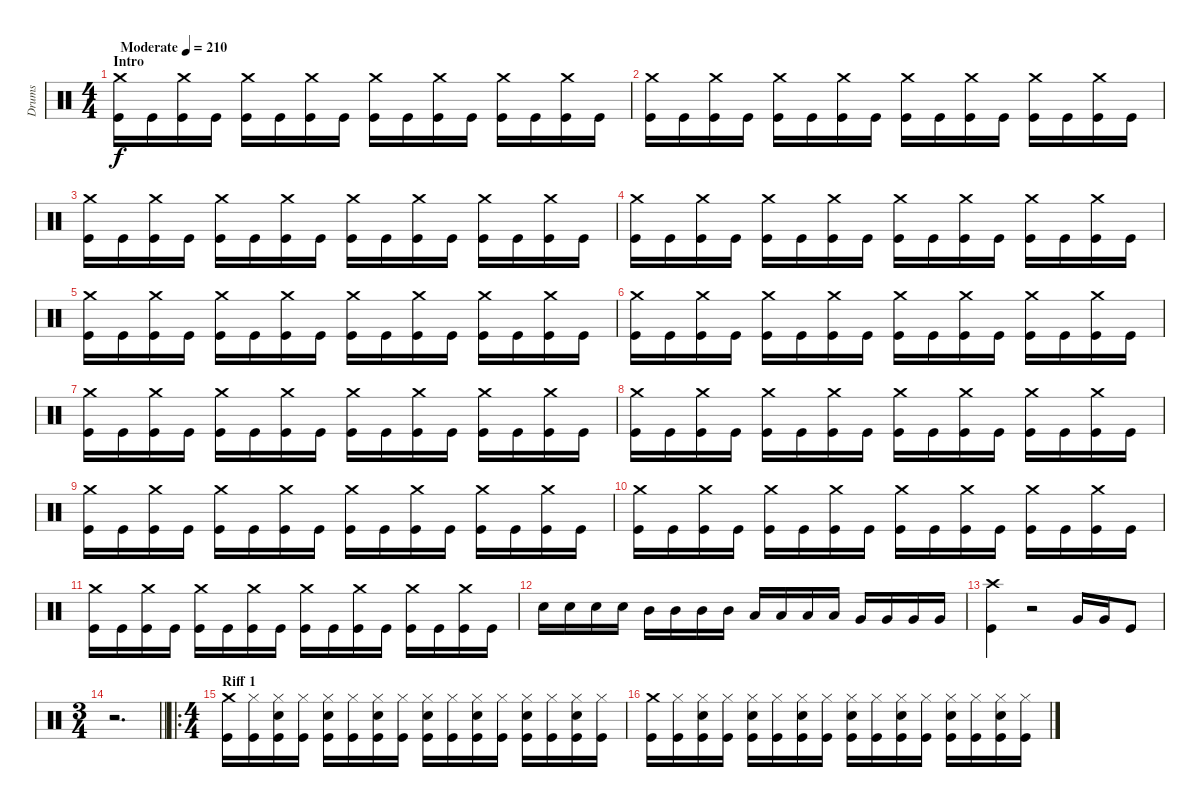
\track ("Drums" "Drums") {instrument percussion}
\staff {score}
\articulation defaults
\ts (4 4)
\section ("" "Intro")
\tempo (210 "Moderate")
\clef neutral
\ks c
("Crash medium (hit)" "Kick (hit)").16{dy f} "Kick (hit)".16 ("Crash medium (hit)" "Kick (hit)").16 "Kick (hit)".16 ("Crash medium (hit)" "Kick (hit)").16 "Kick (hit)".16 ("Crash medium (hit)" "Kick (hit)").16 "Kick (hit)".16 ("Crash medium (hit)" "Kick (hit)").16 "Kick (hit)".16 ("Crash medium (hit)" "Kick (hit)").16 "Kick (hit)".16 ("Crash medium (hit)" "Kick (hit)").16 "Kick (hit)".16 ("Crash medium (hit)" "Kick (hit)").16 "Kick (hit)".16 |
("Crash medium (hit)" "Kick (hit)").16 "Kick (hit)".16 ("Crash medium (hit)" "Kick (hit)").16 "Kick (hit)".16 ("Crash medium (hit)" "Kick (hit)").16 "Kick (hit)".16 ("Crash medium (hit)" "Kick (hit)").16 "Kick (hit)".16 ("Crash medium (hit)" "Kick (hit)").16 "Kick (hit)".16 ("Crash medium (hit)" "Kick (hit)").16 "Kick (hit)".16 ("Crash medium (hit)" "Kick (hit)").16 "Kick (hit)".16 ("Crash medium (hit)" "Kick (hit)").16 "Kick (hit)".16 |
("Crash medium (hit)" "Kick (hit)").16 "Kick (hit)".16 ("Crash medium (hit)" "Kick (hit)").16 "Kick (hit)".16 ("Crash medium (hit)" "Kick (hit)").16 "Kick (hit)".16 ("Crash medium (hit)" "Kick (hit)").16 "Kick (hit)".16 ("Crash medium (hit)" "Kick (hit)").16 "Kick (hit)".16 ("Crash medium (hit)" "Kick (hit)").16 "Kick (hit)".16 ("Crash medium (hit)" "Kick (hit)").16 "Kick (hit)".16 ("Crash medium (hit)" "Kick (hit)").16 "Kick (hit)".16 |
("Crash medium (hit)" "Kick (hit)").16 "Kick (hit)".16 ("Crash medium (hit)" "Kick (hit)").16 "Kick (hit)".16 ("Crash medium (hit)" "Kick (hit)").16 "Kick (hit)".16 ("Crash medium (hit)" "Kick (hit)").16 "Kick (hit)".16 ("Crash medium (hit)" "Kick (hit)").16 "Kick (hit)".16 ("Crash medium (hit)" "Kick (hit)").16 "Kick (hit)".16 ("Crash medium (hit)" "Kick (hit)").16 "Kick (hit)".16 ("Crash medium (hit)" "Kick (hit)").16 "Kick (hit)".16 |
("Crash medium (hit)" "Kick (hit)").16 "Kick (hit)".16 ("Crash medium (hit)" "Kick (hit)").16 "Kick (hit)".16 ("Crash medium (hit)" "Kick (hit)").16 "Kick (hit)".16 ("Crash medium (hit)" "Kick (hit)").16 "Kick (hit)".16 ("Crash medium (hit)" "Kick (hit)").16 "Kick (hit)".16 ("Crash medium (hit)" "Kick (hit)").16 "Kick (hit)".16 ("Crash medium (hit)" "Kick (hit)").16 "Kick (hit)".16 ("Crash medium (hit)" "Kick (hit)").16 "Kick (hit)".16 |
("Crash medium (hit)" "Kick (hit)").16 "Kick (hit)".16 ("Crash medium (hit)" "Kick (hit)").16 "Kick (hit)".16 ("Crash medium (hit)" "Kick (hit)").16 "Kick (hit)".16 ("Crash medium (hit)" "Kick (hit)").16 "Kick (hit)".16 ("Crash medium (hit)" "Kick (hit)").16 "Kick (hit)".16 ("Crash medium (hit)" "Kick (hit)").16 "Kick (hit)".16 ("Crash medium (hit)" "Kick (hit)").16 "Kick (hit)".16 ("Crash medium (hit)" "Kick (hit)").16 "Kick (hit)".16 |
("Crash medium (hit)" "Kick (hit)").16 "Kick (hit)".16 ("Crash medium (hit)" "Kick (hit)").16 "Kick (hit)".16 ("Crash medium (hit)" "Kick (hit)").16 "Kick (hit)".16 ("Crash medium (hit)" "Kick (hit)").16 "Kick (hit)".16 ("Crash medium (hit)" "Kick (hit)").16 "Kick (hit)".16 ("Crash medium (hit)" "Kick (hit)").16 "Kick (hit)".16 ("Crash medium (hit)" "Kick (hit)").16 "Kick (hit)".16 ("Crash medium (hit)" "Kick (hit)").16 "Kick (hit)".16 |
("Crash medium (hit)" "Kick (hit)").16 "Kick (hit)".16 ("Crash medium (hit)" "Kick (hit)").16 "Kick (hit)".16 ("Crash medium (hit)" "Kick (hit)").16 "Kick (hit)".16 ("Crash medium (hit)" "Kick (hit)").16 "Kick (hit)".16 ("Crash medium (hit)" "Kick (hit)").16 "Kick (hit)".16 ("Crash medium (hit)" "Kick (hit)").16 "Kick (hit)".16 ("Crash medium (hit)" "Kick (hit)").16 "Kick (hit)".16 ("Crash medium (hit)" "Kick (hit)").16 "Kick (hit)".16 |
("Crash medium (hit)" "Kick (hit)").16 "Kick (hit)".16 ("Crash medium (hit)" "Kick (hit)").16 "Kick (hit)".16 ("Crash medium (hit)" "Kick (hit)").16 "Kick (hit)".16 ("Crash medium (hit)" "Kick (hit)").16 "Kick (hit)".16 ("Crash medium (hit)" "Kick (hit)").16 "Kick (hit)".16 ("Crash medium (hit)" "Kick (hit)").16 "Kick (hit)".16 ("Crash medium (hit)" "Kick (hit)").16 "Kick (hit)".16 ("Crash medium (hit)" "Kick (hit)").16 "Kick (hit)".16 |
("Crash medium (hit)" "Kick (hit)").16 "Kick (hit)".16 ("Crash medium (hit)" "Kick (hit)").16 "Kick (hit)".16 ("Crash medium (hit)" "Kick (hit)").16 "Kick (hit)".16 ("Crash medium (hit)" "Kick (hit)").16 "Kick (hit)".16 ("Crash medium (hit)" "Kick (hit)").16 "Kick (hit)".16 ("Crash medium (hit)" "Kick (hit)").16 "Kick (hit)".16 ("Crash medium (hit)" "Kick (hit)").16 "Kick (hit)".16 ("Crash medium (hit)" "Kick (hit)").16 "Kick (hit)".16 |
("Crash medium (hit)" "Kick (hit)").16 "Kick (hit)".16 ("Crash medium (hit)" "Kick (hit)").16 "Kick (hit)".16 ("Crash medium (hit)" "Kick (hit)").16 "Kick (hit)".16 ("Crash medium (hit)" "Kick (hit)").16 "Kick (hit)".16 ("Crash medium (hit)" "Kick (hit)").16 "Kick (hit)".16 ("Crash medium (hit)" "Kick (hit)").16 "Kick (hit)".16 ("Crash medium (hit)" "Kick (hit)").16 "Kick (hit)".16 ("Crash medium (hit)" "Kick (hit)").16 "Kick (hit)".16 |
"Snare (hit) 2".16 "Snare (hit) 2".16 "Snare (hit) 2".16 "Snare (hit) 2".16 "Mid Tom (hit)".16 "Mid Tom (hit)".16 "Mid Tom (hit)".16 "Mid Tom (hit)".16 "Low Tom (hit)".16 "Low Tom (hit)".16 "Low Tom (hit)".16 "Low Tom (hit)".16 "Very Low Tom (hit)".16 "Very Low Tom (hit)".16 "Very Low Tom (hit)".16 "Very Low Tom (hit)".16 |
("Crash high (hit)" "Kick (hit)").4 r.2 "Very Low Tom (hit)".16 "Very Low Tom (hit)".16 "Kick (hit)".8 |
\ts (3 4)
\barLineRight lightlight
r.2{d} |
\ro
\ts (4 4)
\section ("" "Riff 1")
("Crash medium (hit)" "Kick (hit)").16 ("Hi-Hat (closed)" "Kick (hit)").16 ("Hi-Hat (closed)" "Snare (hit) 2" "Kick (hit)").16 ("Hi-Hat (closed)" "Kick (hit)").16 ("Hi-Hat (closed)" "Snare (hit) 2" "Kick (hit)").16 ("Hi-Hat (closed)" "Kick (hit)").16 ("Hi-Hat (closed)" "Snare (hit) 2" "Kick (hit)").16 ("Hi-Hat (closed)" "Kick (hit)").16 ("Hi-Hat (closed)" "Snare (hit) 2" "Kick (hit)").16 ("Hi-Hat (closed)" "Kick (hit)").16 ("Hi-Hat (closed)" "Snare (hit) 2" "Kick (hit)").16 ("Hi-Hat (closed)" "Kick (hit)").16 ("Hi-Hat (closed)" "Snare (hit) 2" "Kick (hit)").16 ("Hi-Hat (closed)" "Kick (hit)").16 ("Hi-Hat (closed)" "Snare (hit) 2" "Kick (hit)").16 ("Hi-Hat (closed)" "Kick (hit)").16 |
("Crash medium (hit)" "Kick (hit)").16 ("Hi-Hat (closed)" "Kick (hit)").16 ("Hi-Hat (closed)" "Snare (hit) 2" "Kick (hit)").16 ("Hi-Hat (closed)" "Kick (hit)").16 ("Hi-Hat (closed)" "Snare (hit) 2" "Kick (hit)").16 ("Hi-Hat (closed)" "Kick (hit)").16 ("Hi-Hat (closed)" "Snare (hit) 2" "Kick (hit)").16 ("Hi-Hat (closed)" "Kick (hit)").16 ("Hi-Hat (closed)" "Snare (hit) 2" "Kick (hit)").16 ("Hi-Hat (closed)" "Kick (hit)").16 ("Hi-Hat (closed)" "Snare (hit) 2" "Kick (hit)").16 ("Hi-Hat (closed)" "Kick (hit)").16 ("Hi-Hat (closed)" "Snare (hit) 2" "Kick (hit)").16 ("Hi-Hat (closed)" "Kick (hit)").16 ("Hi-Hat (closed)" "Snare (hit) 2" "Kick (hit)").16 ("Hi-Hat (closed)" "Kick (hit)").16
